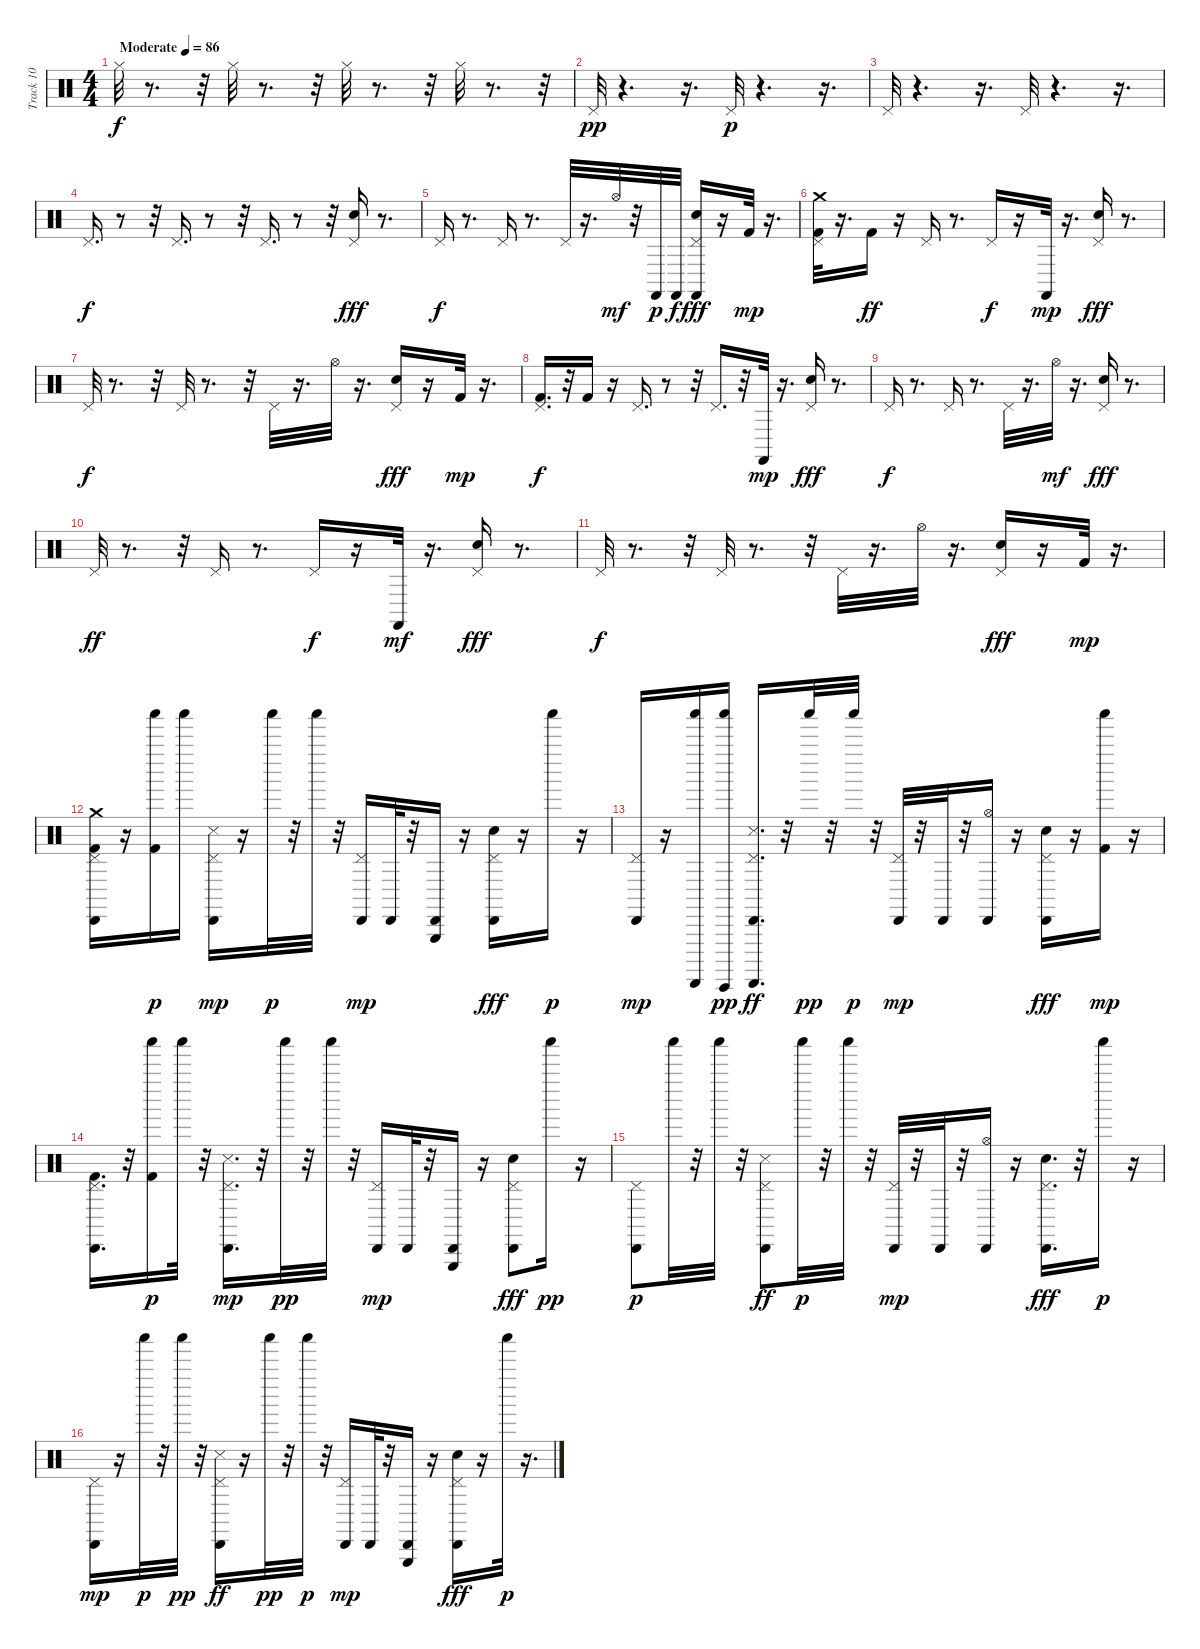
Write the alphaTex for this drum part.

\track ("Track 10" "Track 10") {instrument percussion}
\staff {score}
\articulation defaults
\ts (4 4)
\tempo (86 "Moderate")
\clef neutral
\ks c "Hi-Hat (closed)".32{dy f}
r.8{d} r.32 "Hi-Hat (closed)".32 r.8{d} r.32 "Hi-Hat (closed)".32 r.8{d} r.32 "Hi-Hat (closed)".32 r.8{d} r.32 |
"Pedal Hi-Hat (hit)".32{dy pp} r.4{d} r.16{d} "Pedal Hi-Hat (hit)".32{dy p} r.4{d} r.16{d} |
"Pedal Hi-Hat (hit)".32 r.4{d} r.16{d} "Pedal Hi-Hat (hit)".32 r.4{d} r.16{d} |
"Pedal Hi-Hat (hit)".16{d dy f} r.8 r.32 "Pedal Hi-Hat (hit)".16{d} r.8 r.32 "Pedal Hi-Hat (hit)".16{d} r.8 r.32 ("Pedal Hi-Hat (hit)" "Snare (hit)").16{dy fff} r.8{d} |
"Pedal Hi-Hat (hit)".16{dy f} r.8{d} "Pedal Hi-Hat (hit)".16 r.8{d} "Pedal Hi-Hat (hit)".32 r.16{d} "Hi-Hat (open)".32{dy mf} r.32 "Castanets (hit)".32{dy p} "Castanets (hit)".32{dy f} ("Pedal Hi-Hat (hit)" "Snare (hit)" "Castanets (hit)").16{dy fff} r.16 "Kick (hit) 2".32{dy mp} r.16{d} |
("Pedal Hi-Hat (hit)" "Crash medium (hit)" "Kick (hit) 2").32 r.16{d} "Kick (hit) 2".16{dy ff} r.16 "Pedal Hi-Hat (hit)".16 r.8{d} "Pedal Hi-Hat (hit)".16{dy f} r.16 "Castanets (hit)".32{dy mp} r.16{d} ("Pedal Hi-Hat (hit)" "Snare (hit)").16{dy fff} r.8{d} |
"Pedal Hi-Hat (hit)".32{dy f} r.8{d} r.32 "Pedal Hi-Hat (hit)".32 r.8{d} r.32 "Pedal Hi-Hat (hit)".32 r.16{d} "Hi-Hat (open)".32 r.16{d} ("Pedal Hi-Hat (hit)" "Snare (hit)").16{dy fff} r.16 "Kick (hit) 2".32{dy mp} r.16{d} |
("Pedal Hi-Hat (hit)" "Kick (hit) 2").16{d dy f} r.32 "Kick (hit) 2".16 r.16 "Pedal Hi-Hat (hit)".16{d} r.8 r.32 "Pedal Hi-Hat (hit)".16{d} r.32 "Castanets (hit)".32{dy mp} r.16{d} ("Pedal Hi-Hat (hit)" "Snare (hit)").16{dy fff} r.8{d} |
"Pedal Hi-Hat (hit)".16{dy f} r.8{d} "Pedal Hi-Hat (hit)".16 r.8{d} "Pedal Hi-Hat (hit)".32 r.16{d} "Hi-Hat (open)".32{dy mf} r.16{d} ("Pedal Hi-Hat (hit)" "Snare (hit)").16{dy fff} r.8{d} |
"Pedal Hi-Hat (hit)".32{dy ff} r.8{d} r.32 "Pedal Hi-Hat (hit)".16 r.8{d} "Pedal Hi-Hat (hit)".16{dy f} r.16 "Castanets (hit)".32{dy mf} r.16{d} ("Pedal Hi-Hat (hit)" "Snare (hit)").16{dy fff} r.8{d} |
"Pedal Hi-Hat (hit)".32{dy f} r.8{d} r.32 "Pedal Hi-Hat (hit)".32 r.8{d} r.32 "Pedal Hi-Hat (hit)".32 r.16{d} "Hi-Hat (open)".32 r.16{d} ("Pedal Hi-Hat (hit)" "Snare (hit)").16{dy fff} r.16 "Kick (hit) 2".32{dy mp} r.16{d} |
("Cabasa (hit)" "Pedal Hi-Hat (hit)" "Crash medium (hit)" "Kick (hit) 2").16 r.16 ("Shaker (hit)" "Kick (hit) 2").16{dy p} "Shaker (hit)".16 ("Pedal Hi-Hat (hit)" "Cabasa (hit)" "Snare (side stick) 3").16{dy mp} r.16 "Shaker (hit)".32{dy p} r.32 "Shaker (hit)".32 r.32 ("Pedal Hi-Hat (hit)" "Cabasa (hit)").16{dy mp} "Cabasa (hit)".32 r.32 ("Cabasa (hit)" "Triangle (hit)").16 r.16 ("Pedal Hi-Hat (hit)" "Cabasa (hit)" "Snare (hit)").16{dy fff} r.16 "Shaker (hit)".16{dy p} r.16 |
("Pedal Hi-Hat (hit)" "Cabasa (hit)").16{dy mp} r.16 ("Shaker (hit)" "Guiro (scrap-return)").16 ("Guiro (hit)" "Shaker (hit)").16{dy pp} ("Guiro (scrap-return)" "Pedal Hi-Hat (hit)" "Cabasa (hit)" "Snare (side stick) 3").16{d dy ff} r.32 "Shaker (hit)".32{dy pp} r.32 "Shaker (hit)".32{dy p} r.32 ("Pedal Hi-Hat (hit)" "Cabasa (hit)").32{dy mp} r.32 "Cabasa (hit)".32 r.32 ("Hi-Hat (open)" "Cabasa (hit)").16 r.16 ("Pedal Hi-Hat (hit)" "Cabasa (hit)" "Snare (hit)").16{dy fff} r.16 ("Shaker (hit)" "Kick (hit) 2").16{dy mp} r.16 |
("Pedal Hi-Hat (hit)" "Cabasa (hit)" "Kick (hit) 2").16{d} r.32 ("Shaker (hit)" "Kick (hit) 2").16{dy p} "Shaker (hit)".32 r.32 ("Pedal Hi-Hat (hit)" "Cabasa (hit)" "Snare (side stick) 3").16{d dy mp} r.32 "Shaker (hit)".32{dy pp} r.32 "Shaker (hit)".32 r.32 ("Pedal Hi-Hat (hit)" "Cabasa (hit)").16{dy mp} "Cabasa (hit)".32 r.32 ("Cabasa (hit)" "Triangle (hit)").16 r.16 ("Pedal Hi-Hat (hit)" "Cabasa (hit)" "Snare (hit)").8{dy fff} "Shaker (hit)".16{dy pp} r.16 |
("Pedal Hi-Hat (hit)" "Cabasa (hit)").8{dy p} "Shaker (hit)".32 r.32 "Shaker (hit)".32 r.32 ("Pedal Hi-Hat (hit)" "Cabasa (hit)" "Snare (side stick) 3").8{dy ff} "Shaker (hit)".32{dy p} r.32 "Shaker (hit)".32 r.32 ("Pedal Hi-Hat (hit)" "Cabasa (hit)").32{dy mp} r.32 "Cabasa (hit)".32 r.32 ("Hi-Hat (open)" "Cabasa (hit)").16 r.16 ("Pedal Hi-Hat (hit)" "Cabasa (hit)" "Snare (hit)").16{d dy fff} r.32 "Shaker (hit)".16{dy p} r.16 |
("Pedal Hi-Hat (hit)" "Cabasa (hit)").16{dy mp} r.16 "Shaker (hit)".32{dy p} r.32 "Shaker (hit)".32{dy pp} r.32 ("Pedal Hi-Hat (hit)" "Cabasa (hit)" "Snare (side stick) 3").16{dy ff} r.16 "Shaker (hit)".32{dy pp} r.32 "Shaker (hit)".32{dy p} r.32 ("Pedal Hi-Hat (hit)" "Cabasa (hit)").16{dy mp} "Cabasa (hit)".32 r.32 ("Triangle (hit)" "Cabasa (hit)").16 r.16 ("Pedal Hi-Hat (hit)" "Cabasa (hit)" "Snare (hit)").16{dy fff} r.16 "Shaker (hit)".32{dy p} r.16{d}
